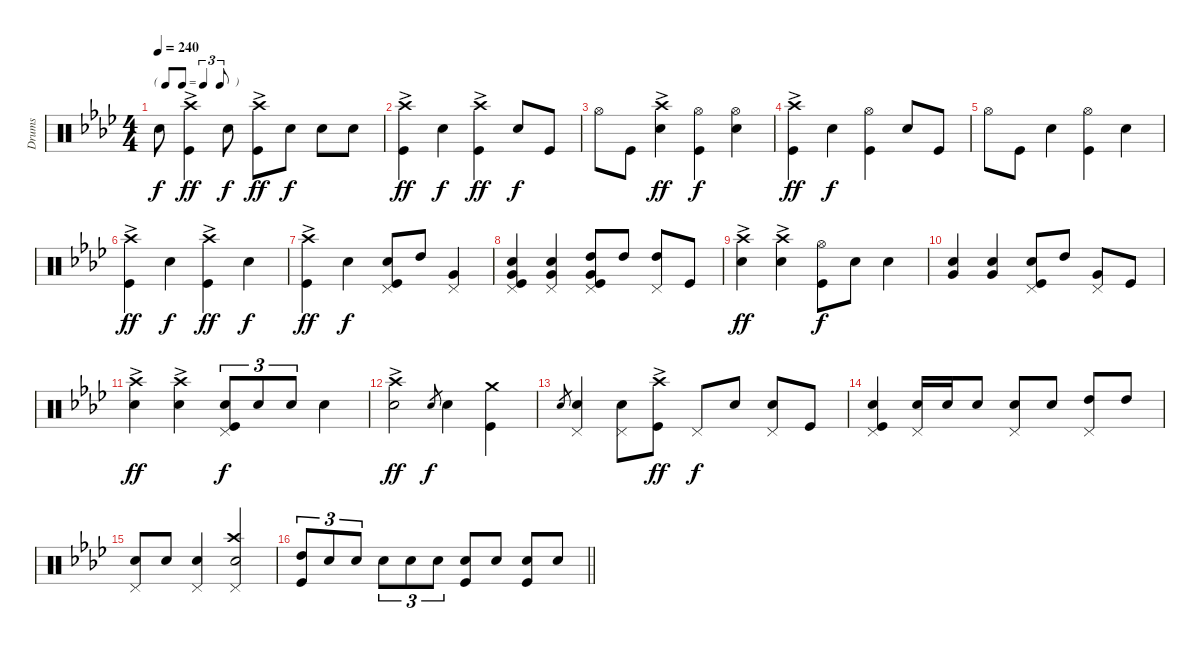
\track ("Drums" "Drums") {instrument percussion}
\staff {score}
\articulation defaults
\ts (4 4)
\tf triplet8th
\tempo 240
\clef neutral
\ks ab "Snare (hit) 2".8{dy f}
("Kick (hit)" "Crash high (hit)"{ac}).4{dy ff} "Snare (hit) 2".8{dy f} ("Kick (hit)" "Crash high (hit)"{ac}).8{dy ff} "Snare (hit) 2".8{dy f} "Snare (hit) 2".8 "Snare (hit) 2".8 |
("Crash high (hit)"{ac} "Kick (hit)").4{dy ff} "Snare (hit) 2".4{dy f} ("Crash high (hit)"{ac} "Kick (hit)").4{dy ff} "Snare (hit) 2".8{dy f} "Kick (hit)".8 |
"Hi-Hat (open)".8 "Kick (hit)".8 ("Crash high (hit)"{ac} "Snare (hit) 2").4{dy ff} ("Kick (hit)" "Hi-Hat (open)").4{dy f} ("Hi-Hat (open)" "Snare (hit) 2").4 |
("Crash high (hit)"{ac} "Kick (hit)").4{dy ff} "Snare (hit) 2".4{dy f} ("Hi-Hat (open)" "Kick (hit)").4 "Snare (hit) 2".8 "Kick (hit)".8 |
"Hi-Hat (open)".8 "Kick (hit)".8 "Snare (hit) 2".4 ("Hi-Hat (open)" "Kick (hit)").4 "Snare (hit) 2".4 |
("Crash high (hit)"{ac} "Kick (hit)").4{dy ff} "Snare (hit) 2".4{dy f} ("Crash high (hit)"{ac} "Kick (hit)").4{dy ff} "Snare (hit) 2".4{dy f} |
("Crash high (hit)"{ac} "Kick (hit)").4{dy ff} "Snare (hit) 2".4{dy f} ("Kick (hit)" "Snare (hit) 2" "Pedal Hi-Hat (hit)").8 "High Tom (hit)".8 ("Very Low Tom (hit)" "Pedal Hi-Hat (hit)").4 |
("Snare (hit) 2" "Very Low Tom (hit)" "Kick (hit)" "Pedal Hi-Hat (hit)").4 ("Snare (hit) 2" "Very Low Tom (hit)" "Pedal Hi-Hat (hit)").4 ("Kick (hit)" "Very Low Tom (hit)" "High Tom (hit)" "Pedal Hi-Hat (hit)").8 "High Tom (hit)".8 ("High Tom (hit)" "Pedal Hi-Hat (hit)").8 "Kick (hit)".8 |
("Crash high (hit)"{ac} "Snare (hit) 2").4{dy ff} ("Snare (hit) 2" "Crash high (hit)"{ac}).4 ("Hi-Hat (open)" "Kick (hit)").8{dy f} "Snare (hit) 2".8 "Snare (hit) 2".4 |
("Snare (hit) 2" "Very Low Tom (hit)").4 ("Very Low Tom (hit)" "Snare (hit) 2").4 ("Pedal Hi-Hat (hit)" "Kick (hit)" "Snare (hit) 2").8 "High Tom (hit)".8 ("Pedal Hi-Hat (hit)" "Very Low Tom (hit)").8 "Kick (hit)".8 |
("Crash high (hit)"{ac} "Snare (hit) 2").4{dy ff} ("Snare (hit) 2" "Crash high (hit)"{ac}).4 ("Kick (hit)" "Pedal Hi-Hat (hit)" "Snare (hit) 2").8{tu (3 2) dy f} "Snare (hit) 2".8{tu (3 2)} "Snare (hit) 2".8{tu (3 2)} "Snare (hit) 2".4 |
("Snare (hit) 2" "Crash high (hit)"{ac}).2{dy ff} "Snare (hit) 2".8{gr dy f} "Snare (hit) 2".4 ("Crash medium (hit)" "Kick (hit)").4 |
"Snare (hit) 2".8{gr} ("Pedal Hi-Hat (hit)" "Snare (hit) 2").4 ("Snare (hit) 2" "Pedal Hi-Hat (hit)").8 ("Kick (hit)" "Crash high (hit)"{ac}).8{dy ff} "Pedal Hi-Hat (hit)".8{dy f} "Snare (hit) 2".8 ("Snare (hit) 2" "Pedal Hi-Hat (hit)").8 "Kick (hit)".8 |
("Pedal Hi-Hat (hit)" "Kick (hit)" "Snare (hit) 2").4 ("Pedal Hi-Hat (hit)" "Snare (hit) 2").16 "Snare (hit) 2".16 "Snare (hit) 2".8 ("Pedal Hi-Hat (hit)" "Snare (hit) 2").8 "Snare (hit) 2".8 ("Pedal Hi-Hat (hit)" "High Tom (hit)").8 "High Tom (hit)".8 |
("Pedal Hi-Hat (hit)" "Snare (hit) 2").8 "Snare (hit) 2".8 ("Snare (hit) 2" "Pedal Hi-Hat (hit)").4 ("Crash high (hit)" "Snare (hit) 2" "Pedal Hi-Hat (hit)").2 |
\barLineRight lightlight
("High Tom (hit)" "Kick (hit)").8{tu (3 2)} "Snare (hit) 2".8{tu (3 2)} "Snare (hit) 2".8{tu (3 2)} "Snare (hit) 2".8{tu (3 2)} "Snare (hit) 2".8{tu (3 2)} "Snare (hit) 2".8{tu (3 2)} ("Snare (hit) 2" "Kick (hit)").8 "Snare (hit) 2".8 ("Snare (hit) 2" "Kick (hit)").8 "Snare (hit) 2".8
